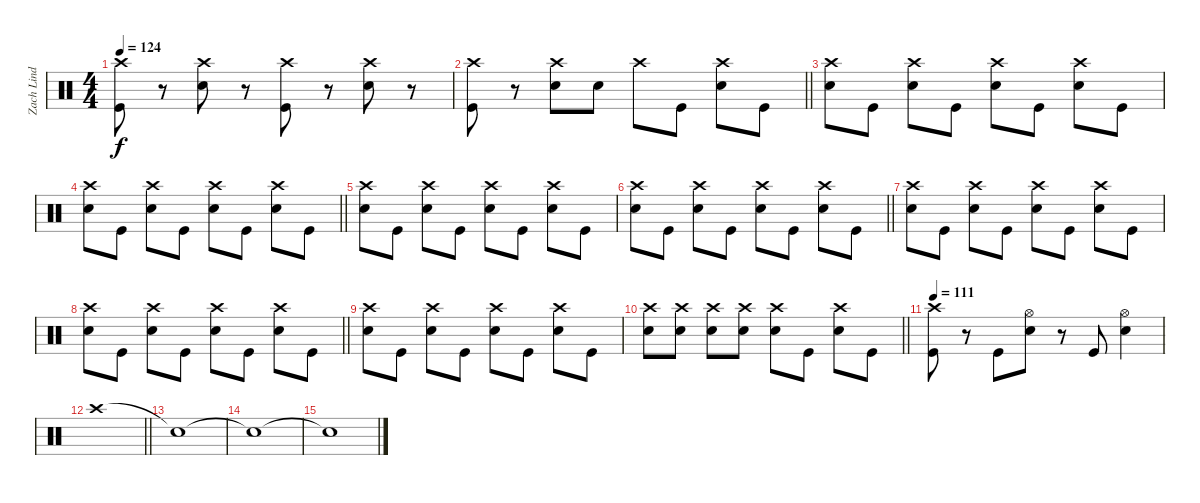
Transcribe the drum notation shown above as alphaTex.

\track ("Zach Lind - Drums" "Zach Lind ") {instrument percussion}
\staff {score}
\articulation defaults
\ts (4 4)
\tempo 124
\clef neutral
\ks c
("Kick (hit)" "Crash high (hit)").8{dy f} r.8 ("Snare (hit) 2" "Crash high (hit)").8 r.8 ("Kick (hit)" "Crash high (hit)").8 r.8 ("Snare (hit) 2" "Crash high (hit)").8 r.8 |
\barLineRight lightlight
("Kick (hit)" "Crash high (hit)").8 r.8 ("Snare (hit) 2" "Crash high (hit)").8 "Snare (hit) 2".8 "Crash high (hit)".8 "Kick (hit)".8 ("Snare (hit) 2" "Crash high (hit)").8 "Kick (hit)".8 |
("Snare (hit) 2" "Crash high (hit)").8 "Kick (hit)".8 ("Snare (hit) 2" "Crash high (hit)").8 "Kick (hit)".8 ("Snare (hit) 2" "Crash high (hit)").8 "Kick (hit)".8 ("Snare (hit) 2" "Crash high (hit)").8 "Kick (hit)".8 |
\barLineRight lightlight
("Snare (hit) 2" "Crash high (hit)").8 "Kick (hit)".8 ("Snare (hit) 2" "Crash high (hit)").8 "Kick (hit)".8 ("Snare (hit) 2" "Crash high (hit)").8 "Kick (hit)".8 ("Snare (hit) 2" "Crash high (hit)").8 "Kick (hit)".8 |
("Snare (hit) 2" "Crash high (hit)").8 "Kick (hit)".8 ("Snare (hit) 2" "Crash high (hit)").8 "Kick (hit)".8 ("Snare (hit) 2" "Crash high (hit)").8 "Kick (hit)".8 ("Snare (hit) 2" "Crash high (hit)").8 "Kick (hit)".8 |
\barLineRight lightlight
("Snare (hit) 2" "Crash high (hit)").8 "Kick (hit)".8 ("Snare (hit) 2" "Crash high (hit)").8 "Kick (hit)".8 ("Snare (hit) 2" "Crash high (hit)").8 "Kick (hit)".8 ("Snare (hit) 2" "Crash high (hit)").8 "Kick (hit)".8 |
("Snare (hit) 2" "Crash high (hit)").8 "Kick (hit)".8 ("Snare (hit) 2" "Crash high (hit)").8 "Kick (hit)".8 ("Snare (hit) 2" "Crash high (hit)").8 "Kick (hit)".8 ("Snare (hit) 2" "Crash high (hit)").8 "Kick (hit)".8 |
\barLineRight lightlight
("Snare (hit) 2" "Crash high (hit)").8 "Kick (hit)".8 ("Snare (hit) 2" "Crash high (hit)").8 "Kick (hit)".8 ("Snare (hit) 2" "Crash high (hit)").8 "Kick (hit)".8 ("Snare (hit) 2" "Crash high (hit)").8 "Kick (hit)".8 |
("Snare (hit) 2" "Crash high (hit)").8 "Kick (hit)".8 ("Snare (hit) 2" "Crash high (hit)").8 "Kick (hit)".8 ("Snare (hit) 2" "Crash high (hit)").8 "Kick (hit)".8 ("Snare (hit) 2" "Crash high (hit)").8 "Kick (hit)".8 |
\barLineRight lightlight
("Snare (hit) 2" "Crash high (hit)").8 ("Snare (hit) 2" "Crash high (hit)").8 ("Snare (hit) 2" "Crash high (hit)").8 ("Snare (hit) 2" "Crash high (hit)").8 ("Snare (hit) 2" "Crash high (hit)").8 "Kick (hit)".8 ("Snare (hit) 2" "Crash high (hit)").8 "Kick (hit)".8 |
\tempo 111
("Kick (hit)" "Crash high (hit)").8 r.8 "Kick (hit)".8 ("Snare (hit) 2" "Hi-Hat (open)").8 r.8 "Kick (hit)".8 ("Snare (hit) 2" "Hi-Hat (open)").4 |
\barLineRight lightlight "Crash high (hit)".1
|
"Snare (hit)"{t}.1 |
"Snare (hit)"{t}.1 |
"Snare (hit)"{t}.1
